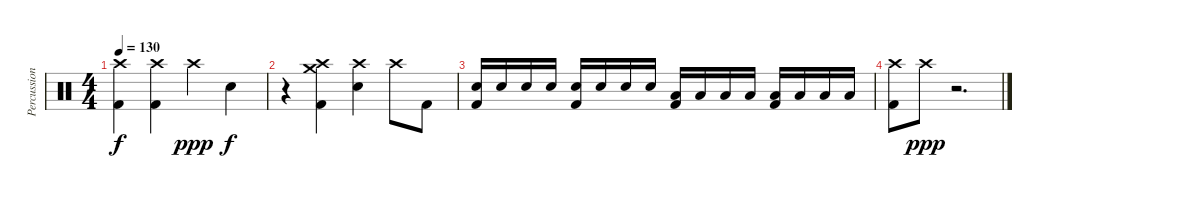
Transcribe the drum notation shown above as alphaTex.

\track ("Percussion" "Percussion") {instrument percussion}
\staff {score}
\articulation defaults
\ts (4 4)
\tempo 130
\clef neutral
\ks c
("Crash high (hit)" "Kick (hit) 2").4{dy f} ("Crash high (hit)" "Kick (hit) 2").4 "Crash high (hit)".4{dy ppp} "Electric Snare (hit)".4{dy f} |
r.4 ("Crash high (hit)" "Crash medium (hit)" "Kick (hit) 2").4 ("Crash high (hit)" "Electric Snare (hit)").4 "Crash high (hit)".8 "Kick (hit) 2".8 |
("Electric Snare (hit)" "Kick (hit) 2").16 "Electric Snare (hit)".16 "Electric Snare (hit)".16 "Electric Snare (hit)".16 ("Electric Snare (hit)" "Kick (hit) 2").16 "Electric Snare (hit)".16 "Electric Snare (hit)".16 "Electric Snare (hit)".16 ("Low Tom (hit)" "Kick (hit) 2").16 "Low Tom (hit)".16 "Low Tom (hit)".16 "Low Tom (hit)".16 ("Low Floor Tom (hit)" "Kick (hit) 2").16 "Low Floor Tom (hit)".16 "Low Floor Tom (hit)".16 "Low Floor Tom (hit)".16 |
("Crash high (hit)" "Kick (hit) 2").8 "Crash high (hit)".8{dy ppp} r.2{d}
